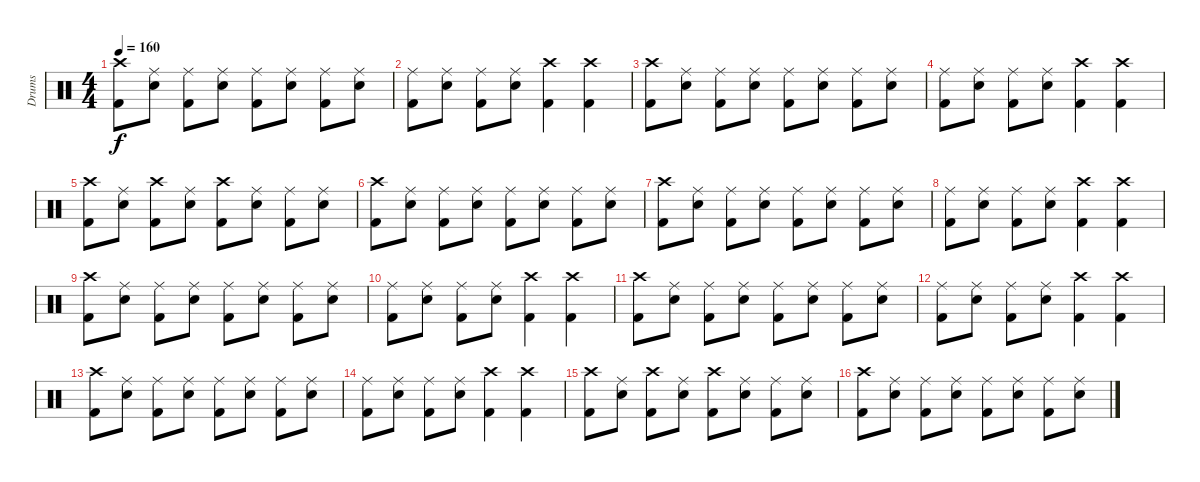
\track ("Drums" "Drums") {instrument percussion}
\staff {score}
\articulation defaults
\ts (4 4)
\tempo 160
\clef neutral
\ks c
("Kick (hit) 2" "Crash high (hit)").8{dy f} ("Snare (hit) 2" "Ride (middle)").8 ("Kick (hit) 2" "Ride (middle)").8 ("Snare (hit) 2" "Ride (middle)").8 ("Kick (hit) 2" "Ride (middle)").8 ("Snare (hit) 2" "Ride (middle)").8 ("Kick (hit) 2" "Ride (middle)").8 ("Snare (hit) 2" "Ride (middle)").8 |
("Kick (hit) 2" "Ride (middle)").8 ("Snare (hit) 2" "Ride (middle)").8 ("Kick (hit) 2" "Ride (middle)").8 ("Snare (hit) 2" "Ride (middle)").8 ("Kick (hit) 2" "Crash high (hit)").4 ("Kick (hit) 2" "Crash high (hit)").4 |
("Kick (hit) 2" "Crash high (hit)").8 ("Snare (hit) 2" "Ride (middle)").8 ("Kick (hit) 2" "Ride (middle)").8 ("Snare (hit) 2" "Ride (middle)").8 ("Kick (hit) 2" "Ride (middle)").8 ("Snare (hit) 2" "Ride (middle)").8 ("Kick (hit) 2" "Ride (middle)").8 ("Snare (hit) 2" "Ride (middle)").8 |
("Kick (hit) 2" "Ride (middle)").8 ("Snare (hit) 2" "Ride (middle)").8 ("Kick (hit) 2" "Ride (middle)").8 ("Snare (hit) 2" "Ride (middle)").8 ("Kick (hit) 2" "Crash high (hit)").4 ("Kick (hit) 2" "Crash high (hit)").4 |
("Kick (hit) 2" "Crash high (hit)").8 ("Snare (hit) 2" "Ride (middle)").8 ("Kick (hit) 2" "Crash high (hit)").8 ("Snare (hit) 2" "Ride (middle)").8 ("Kick (hit) 2" "Crash high (hit)").8 ("Snare (hit) 2" "Ride (middle)").8 ("Kick (hit) 2" "Ride (middle)").8 ("Snare (hit) 2" "Ride (middle)").8 |
("Crash high (hit)" "Kick (hit) 2").8 ("Ride (middle)" "Snare (hit) 2").8 ("Ride (middle)" "Kick (hit) 2").8 ("Ride (middle)" "Snare (hit) 2").8 ("Ride (middle)" "Kick (hit) 2").8 ("Ride (middle)" "Snare (hit) 2").8 ("Ride (middle)" "Kick (hit) 2").8 ("Ride (middle)" "Snare (hit) 2").8 |
("Kick (hit) 2" "Crash high (hit)").8 ("Snare (hit) 2" "Ride (middle)").8 ("Kick (hit) 2" "Ride (middle)").8 ("Snare (hit) 2" "Ride (middle)").8 ("Kick (hit) 2" "Ride (middle)").8 ("Snare (hit) 2" "Ride (middle)").8 ("Kick (hit) 2" "Ride (middle)").8 ("Snare (hit) 2" "Ride (middle)").8 |
("Kick (hit) 2" "Ride (middle)").8 ("Snare (hit) 2" "Ride (middle)").8 ("Kick (hit) 2" "Ride (middle)").8 ("Snare (hit) 2" "Ride (middle)").8 ("Kick (hit) 2" "Crash high (hit)").4 ("Kick (hit) 2" "Crash high (hit)").4 |
("Kick (hit) 2" "Crash high (hit)").8 ("Snare (hit) 2" "Ride (middle)").8 ("Kick (hit) 2" "Ride (middle)").8 ("Snare (hit) 2" "Ride (middle)").8 ("Kick (hit) 2" "Ride (middle)").8 ("Snare (hit) 2" "Ride (middle)").8 ("Kick (hit) 2" "Ride (middle)").8 ("Snare (hit) 2" "Ride (middle)").8 |
("Kick (hit) 2" "Ride (middle)").8 ("Snare (hit) 2" "Ride (middle)").8 ("Kick (hit) 2" "Ride (middle)").8 ("Snare (hit) 2" "Ride (middle)").8 ("Kick (hit) 2" "Crash high (hit)").4 ("Kick (hit) 2" "Crash high (hit)").4 |
("Kick (hit) 2" "Crash high (hit)").8 ("Snare (hit) 2" "Ride (middle)").8 ("Kick (hit) 2" "Ride (middle)").8 ("Snare (hit) 2" "Ride (middle)").8 ("Kick (hit) 2" "Ride (middle)").8 ("Snare (hit) 2" "Ride (middle)").8 ("Kick (hit) 2" "Ride (middle)").8 ("Snare (hit) 2" "Ride (middle)").8 |
("Kick (hit) 2" "Ride (middle)").8 ("Snare (hit) 2" "Ride (middle)").8 ("Kick (hit) 2" "Ride (middle)").8 ("Snare (hit) 2" "Ride (middle)").8 ("Kick (hit) 2" "Crash high (hit)").4 ("Kick (hit) 2" "Crash high (hit)").4 |
("Kick (hit) 2" "Crash high (hit)").8 ("Snare (hit) 2" "Ride (middle)").8 ("Kick (hit) 2" "Ride (middle)").8 ("Snare (hit) 2" "Ride (middle)").8 ("Kick (hit) 2" "Ride (middle)").8 ("Snare (hit) 2" "Ride (middle)").8 ("Kick (hit) 2" "Ride (middle)").8 ("Snare (hit) 2" "Ride (middle)").8 |
("Kick (hit) 2" "Ride (middle)").8 ("Snare (hit) 2" "Ride (middle)").8 ("Kick (hit) 2" "Ride (middle)").8 ("Snare (hit) 2" "Ride (middle)").8 ("Kick (hit) 2" "Crash high (hit)").4 ("Kick (hit) 2" "Crash high (hit)").4 |
("Kick (hit) 2" "Crash high (hit)").8 ("Snare (hit) 2" "Ride (middle)").8 ("Kick (hit) 2" "Crash high (hit)").8 ("Snare (hit) 2" "Ride (middle)").8 ("Kick (hit) 2" "Crash high (hit)").8 ("Snare (hit) 2" "Ride (middle)").8 ("Kick (hit) 2" "Ride (middle)").8 ("Snare (hit) 2" "Ride (middle)").8 |
("Crash high (hit)" "Kick (hit) 2").8 ("Ride (middle)" "Snare (hit) 2").8 ("Ride (middle)" "Kick (hit) 2").8 ("Ride (middle)" "Snare (hit) 2").8 ("Ride (middle)" "Kick (hit) 2").8 ("Ride (middle)" "Snare (hit) 2").8 ("Ride (middle)" "Kick (hit) 2").8 ("Ride (middle)" "Snare (hit) 2").8
